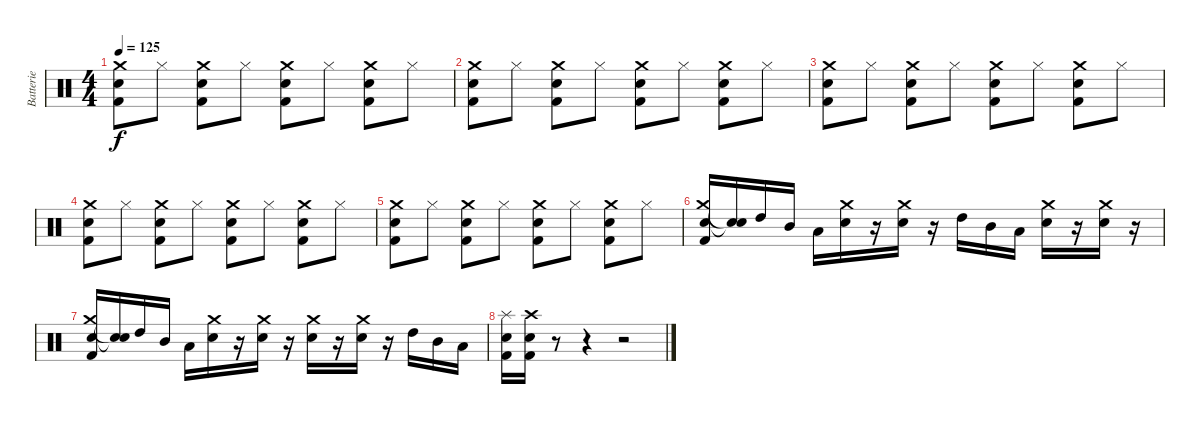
\track ("Batterie" "Batterie") {instrument percussion}
\staff {score}
\articulation defaults
\ts (4 4)
\tempo 125
\clef neutral
\ks c
("Electric Snare (hit)" "Crash medium (hit)" "Kick (hit) 2").8{dy f} "Hi-Hat (closed)".8 ("Electric Snare (hit)" "Crash medium (hit)" "Kick (hit) 2").8 "Hi-Hat (closed)".8 ("Electric Snare (hit)" "Crash medium (hit)" "Kick (hit) 2").8 "Hi-Hat (closed)".8 ("Electric Snare (hit)" "Crash medium (hit)" "Kick (hit) 2").8 "Hi-Hat (closed)".8 |
("Electric Snare (hit)" "Crash medium (hit)" "Kick (hit) 2").8 "Hi-Hat (closed)".8 ("Electric Snare (hit)" "Crash medium (hit)" "Kick (hit) 2").8 "Hi-Hat (closed)".8 ("Electric Snare (hit)" "Crash medium (hit)" "Kick (hit) 2").8 "Hi-Hat (closed)".8 ("Electric Snare (hit)" "Crash medium (hit)" "Kick (hit) 2").8 "Hi-Hat (closed)".8 |
("Electric Snare (hit)" "Crash medium (hit)" "Kick (hit) 2").8 "Hi-Hat (closed)".8 ("Electric Snare (hit)" "Crash medium (hit)" "Kick (hit) 2").8 "Hi-Hat (closed)".8 ("Electric Snare (hit)" "Crash medium (hit)" "Kick (hit) 2").8 "Hi-Hat (closed)".8 ("Electric Snare (hit)" "Crash medium (hit)" "Kick (hit) 2").8 "Hi-Hat (closed)".8 |
("Electric Snare (hit)" "Crash medium (hit)" "Kick (hit) 2").8 "Hi-Hat (closed)".8 ("Electric Snare (hit)" "Crash medium (hit)" "Kick (hit) 2").8 "Hi-Hat (closed)".8 ("Electric Snare (hit)" "Crash medium (hit)" "Kick (hit) 2").8 "Hi-Hat (closed)".8 ("Electric Snare (hit)" "Crash medium (hit)" "Kick (hit) 2").8 "Hi-Hat (closed)".8 |
("Electric Snare (hit)" "Crash medium (hit)" "Kick (hit) 2").8 "Hi-Hat (closed)".8 ("Electric Snare (hit)" "Crash medium (hit)" "Kick (hit) 2").8 "Hi-Hat (closed)".8 ("Electric Snare (hit)" "Crash medium (hit)" "Kick (hit) 2").8 "Hi-Hat (closed)".8 ("Electric Snare (hit)" "Crash medium (hit)" "Kick (hit) 2").8 "Hi-Hat (closed)".8 |
("Crash medium (hit)" "Electric Snare (hit)" "Kick (hit) 2").16 ("Snare (hit)"{t} "Snare (hit)"{t}).16 "High Tom (hit)".16 "Mid Tom (hit)".16 "Low Tom (hit)".16 ("Crash medium (hit)" "Electric Snare (hit)").16 r.16 ("Crash medium (hit)" "Electric Snare (hit)").16 r.16 "High Tom (hit)".16 "Mid Tom (hit)".16 "Low Tom (hit)".16 ("Crash medium (hit)" "Electric Snare (hit)").16 r.16 ("Crash medium (hit)" "Electric Snare (hit)").16 r.16 |
("Crash medium (hit)" "Electric Snare (hit)" "Kick (hit) 2").16 ("Snare (hit)"{t} "Snare (hit)"{t}).16 "High Tom (hit)".16 "Mid Tom (hit)".16 "Low Tom (hit)".16 ("Crash medium (hit)" "Electric Snare (hit)").16 r.16 ("Crash medium (hit)" "Electric Snare (hit)").16 r.16 ("Crash medium (hit)" "Electric Snare (hit)").16 r.16 ("Crash medium (hit)" "Electric Snare (hit)").16 r.16 "High Tom (hit)".16 "Mid Tom (hit)".16 "Low Tom (hit)".16 |
("Splash (hit)" "Kick (hit) 2" "Electric Snare (hit)").16 ("Crash high (hit)" "Kick (hit) 2" "Electric Snare (hit)").16 r.8 r.4 r.2
